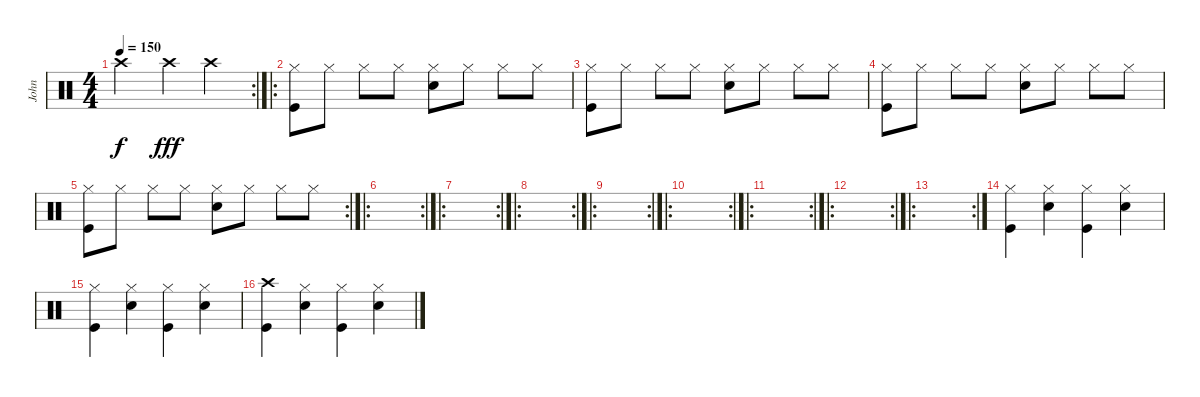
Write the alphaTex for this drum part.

\track ("John" "John") {instrument percussion}
\staff {score}
\articulation defaults
\rc 2
\ts (4 4)
\tempo 150
\clef neutral
\ks c "Crash high (hit)"{t}.2{dy f} "Crash high (hit)".4{dy fff} "Crash high (hit)".4
|
\ro
("Hi-Hat (closed)" "Kick (hit)").8 "Hi-Hat (closed)".8 "Hi-Hat (closed)".8 "Hi-Hat (closed)".8 ("Hi-Hat (closed)" "Snare (hit) 2").8 "Hi-Hat (closed)".8 "Hi-Hat (closed)".8 "Hi-Hat (closed)".8 |
("Hi-Hat (closed)" "Kick (hit)").8 "Hi-Hat (closed)".8 "Hi-Hat (closed)".8 "Hi-Hat (closed)".8 ("Hi-Hat (closed)" "Snare (hit) 2").8 "Hi-Hat (closed)".8 "Hi-Hat (closed)".8 "Hi-Hat (closed)".8 |
("Hi-Hat (closed)" "Kick (hit)").8 "Hi-Hat (closed)".8 "Hi-Hat (closed)".8 "Hi-Hat (closed)".8 ("Hi-Hat (closed)" "Snare (hit) 2").8 "Hi-Hat (closed)".8 "Hi-Hat (closed)".8 "Hi-Hat (closed)".8 |
\rc 2
("Hi-Hat (closed)" "Kick (hit)").8 "Hi-Hat (closed)".8 "Hi-Hat (closed)".8 "Hi-Hat (closed)".8 ("Hi-Hat (closed)" "Snare (hit) 2").8 "Hi-Hat (closed)".8 "Hi-Hat (closed)".8 "Hi-Hat (closed)".8 |
\ro
\rc 2
|
\ro
\rc 2
|
\ro
\rc 2
|
\ro
\rc 2
|
\ro
\rc 2
|
\ro
\rc 2
|
\ro
\rc 2
|
\ro
\rc 2
|
("Hi-Hat (closed)" "Kick (hit)").4 ("Hi-Hat (closed)" "Snare (hit) 2").4 ("Hi-Hat (closed)" "Kick (hit)").4 ("Hi-Hat (closed)" "Snare (hit) 2").4 |
("Hi-Hat (closed)" "Kick (hit)").4 ("Hi-Hat (closed)" "Snare (hit) 2").4 ("Hi-Hat (closed)" "Kick (hit)").4 ("Hi-Hat (closed)" "Snare (hit) 2").4 |
("Crash high (hit)" "Kick (hit)").4 ("Hi-Hat (closed)" "Snare (hit) 2").4 ("Hi-Hat (closed)" "Kick (hit)").4 ("Hi-Hat (closed)" "Snare (hit) 2").4
